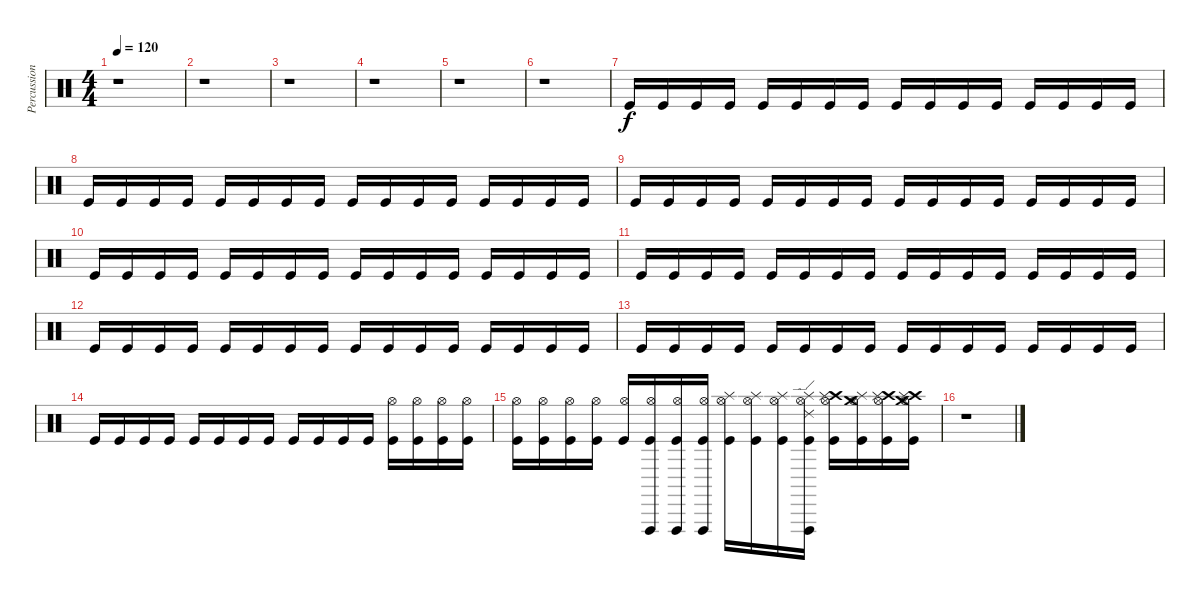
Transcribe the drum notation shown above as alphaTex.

\track ("Percussion" "Percussion") {instrument percussion}
\staff {score}
\articulation defaults
\ts (4 4)
\tempo 120
\clef neutral
\ks c
r.1{dy f} |
r.1 |
r.1 |
r.1 |
r.1 |
r.1 |
"Kick (hit)".16 "Kick (hit)".16 "Kick (hit)".16 "Kick (hit)".16 "Kick (hit)".16 "Kick (hit)".16 "Kick (hit)".16 "Kick (hit)".16 "Kick (hit)".16 "Kick (hit)".16 "Kick (hit)".16 "Kick (hit)".16 "Kick (hit)".16 "Kick (hit)".16 "Kick (hit)".16 "Kick (hit)".16 |
"Kick (hit)".16 "Kick (hit)".16 "Kick (hit)".16 "Kick (hit)".16 "Kick (hit)".16 "Kick (hit)".16 "Kick (hit)".16 "Kick (hit)".16 "Kick (hit)".16 "Kick (hit)".16 "Kick (hit)".16 "Kick (hit)".16 "Kick (hit)".16 "Kick (hit)".16 "Kick (hit)".16 "Kick (hit)".16 |
"Kick (hit)".16 "Kick (hit)".16 "Kick (hit)".16 "Kick (hit)".16 "Kick (hit)".16 "Kick (hit)".16 "Kick (hit)".16 "Kick (hit)".16 "Kick (hit)".16 "Kick (hit)".16 "Kick (hit)".16 "Kick (hit)".16 "Kick (hit)".16 "Kick (hit)".16 "Kick (hit)".16 "Kick (hit)".16 |
"Kick (hit)".16 "Kick (hit)".16 "Kick (hit)".16 "Kick (hit)".16 "Kick (hit)".16 "Kick (hit)".16 "Kick (hit)".16 "Kick (hit)".16 "Kick (hit)".16 "Kick (hit)".16 "Kick (hit)".16 "Kick (hit)".16 "Kick (hit)".16 "Kick (hit)".16 "Kick (hit)".16 "Kick (hit)".16 |
"Kick (hit)".16 "Kick (hit)".16 "Kick (hit)".16 "Kick (hit)".16 "Kick (hit)".16 "Kick (hit)".16 "Kick (hit)".16 "Kick (hit)".16 "Kick (hit)".16 "Kick (hit)".16 "Kick (hit)".16 "Kick (hit)".16 "Kick (hit)".16 "Kick (hit)".16 "Kick (hit)".16 "Kick (hit)".16 |
"Kick (hit)".16 "Kick (hit)".16 "Kick (hit)".16 "Kick (hit)".16 "Kick (hit)".16 "Kick (hit)".16 "Kick (hit)".16 "Kick (hit)".16 "Kick (hit)".16 "Kick (hit)".16 "Kick (hit)".16 "Kick (hit)".16 "Kick (hit)".16 "Kick (hit)".16 "Kick (hit)".16 "Kick (hit)".16 |
"Kick (hit)".16 "Kick (hit)".16 "Kick (hit)".16 "Kick (hit)".16 "Kick (hit)".16 "Kick (hit)".16 "Kick (hit)".16 "Kick (hit)".16 "Kick (hit)".16 "Kick (hit)".16 "Kick (hit)".16 "Kick (hit)".16 "Kick (hit)".16 "Kick (hit)".16 "Kick (hit)".16 "Kick (hit)".16 |
"Kick (hit)".16 "Kick (hit)".16 "Kick (hit)".16 "Kick (hit)".16 "Kick (hit)".16 "Kick (hit)".16 "Kick (hit)".16 "Kick (hit)".16 "Kick (hit)".16 "Kick (hit)".16 "Kick (hit)".16 "Kick (hit)".16 ("Hi-Hat (open)" "Kick (hit)").16 ("Hi-Hat (open)" "Kick (hit)").16 ("Hi-Hat (open)" "Kick (hit)").16 ("Hi-Hat (open)" "Kick (hit)").16 |
("Hi-Hat (open)" "Kick (hit)").16 ("Hi-Hat (open)" "Kick (hit)").16 ("Hi-Hat (open)" "Kick (hit)").16 ("Hi-Hat (open)" "Kick (hit)").16 ("Hi-Hat (open)" "Kick (hit)").16 ("Vibraslap (hit)" "Hi-Hat (open)" "Kick (hit)").16 ("Vibraslap (hit)" "Hi-Hat (open)" "Kick (hit)").16 ("Vibraslap (hit)" "Hi-Hat (open)" "Kick (hit)").16 ("Splash (hit)" "Hi-Hat (open)" "Kick (hit)").16 ("Splash (hit)" "Hi-Hat (open)" "Kick (hit)").16 ("Splash (hit)" "Hi-Hat (open)" "Kick (hit)").16 ("Vibraslap (hit)" "Ride (edge) 2" "Splash (hit)" "Hi-Hat (open)" "Kick (hit)").16 ("Crash high (hit)" "Splash (hit)" "Hi-Hat (open)" "Kick (hit)").16 ("Crash medium (hit)" "Splash (hit)" "Hi-Hat (open)" "Kick (hit)").16 ("Crash high (hit)" "Splash (hit)" "Hi-Hat (open)" "Kick (hit)").16 ("Crash high (hit)" "Crash medium (hit)" "Splash (hit)" "Hi-Hat (open)" "Kick (hit)").16 |
r.1
